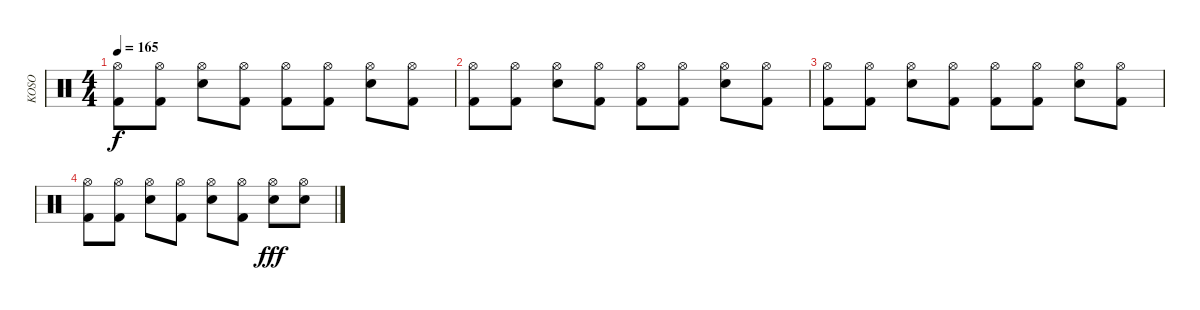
\track ("KOSO" "KOSO") {instrument percussion}
\staff {score}
\articulation defaults
\ts (4 4)
\tempo 165
\clef neutral
\ks c
("Hi-Hat (open)" "Kick (hit) 2").8{dy f} ("Hi-Hat (open)" "Kick (hit) 2").8 ("Hi-Hat (open)" "Snare (hit) 2").8 ("Hi-Hat (open)" "Kick (hit) 2").8 ("Hi-Hat (open)" "Kick (hit) 2").8 ("Hi-Hat (open)" "Kick (hit) 2").8 ("Hi-Hat (open)" "Snare (hit) 2").8 ("Hi-Hat (open)" "Kick (hit) 2").8 |
("Hi-Hat (open)" "Kick (hit) 2").8 ("Hi-Hat (open)" "Kick (hit) 2").8 ("Hi-Hat (open)" "Snare (hit) 2").8 ("Hi-Hat (open)" "Kick (hit) 2").8 ("Hi-Hat (open)" "Kick (hit) 2").8 ("Hi-Hat (open)" "Kick (hit) 2").8 ("Hi-Hat (open)" "Snare (hit) 2").8 ("Hi-Hat (open)" "Kick (hit) 2").8 |
("Hi-Hat (open)" "Kick (hit) 2").8 ("Hi-Hat (open)" "Kick (hit) 2").8 ("Hi-Hat (open)" "Snare (hit) 2").8 ("Hi-Hat (open)" "Kick (hit) 2").8 ("Hi-Hat (open)" "Kick (hit) 2").8 ("Hi-Hat (open)" "Kick (hit) 2").8 ("Hi-Hat (open)" "Snare (hit) 2").8 ("Hi-Hat (open)" "Kick (hit) 2").8 |
("Hi-Hat (open)" "Kick (hit) 2").8 ("Hi-Hat (open)" "Kick (hit) 2").8 ("Hi-Hat (open)" "Snare (hit) 2").8 ("Hi-Hat (open)" "Kick (hit) 2").8 ("Hi-Hat (open)" "Snare (hit) 2").8 ("Hi-Hat (open)" "Kick (hit) 2").8 ("Hi-Hat (open)" "Snare (hit) 2").8{dy fff} ("Hi-Hat (open)" "Snare (hit) 2").8
